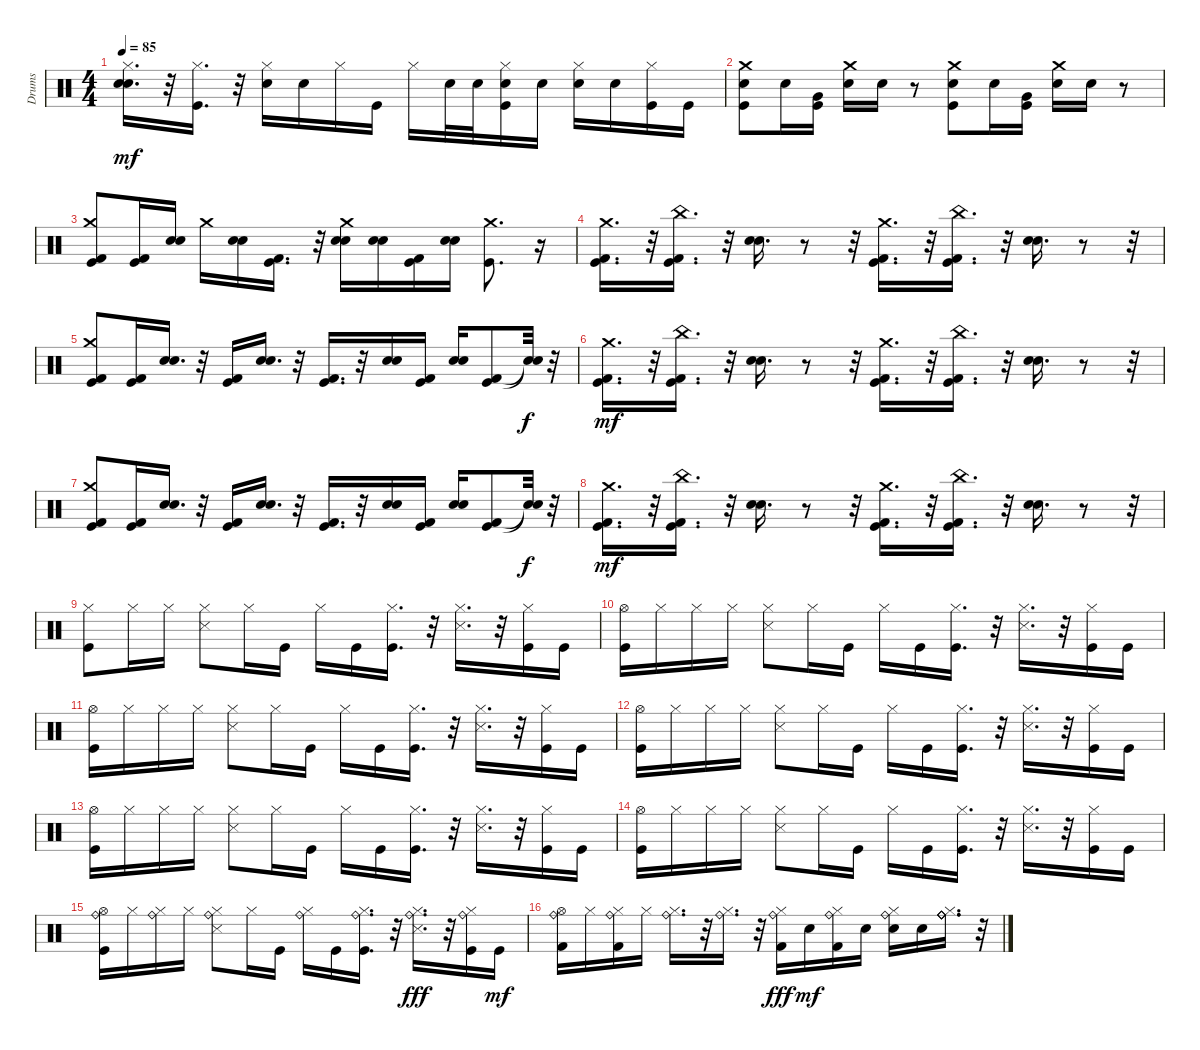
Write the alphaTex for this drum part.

\track ("Drums" "Drums") {instrument percussion}
\staff {score}
\articulation defaults
\ts (4 4)
\tempo 85
\clef neutral
\ks c
("Electric Snare (hit)" "Snare (hit) 2" "Hi-Hat (closed)").16{d dy mf} r.32 ("Kick (hit)" "Hi-Hat (closed)").16{d} r.32 ("Electric Snare (hit)" "Hi-Hat (closed)").16 "Electric Snare (hit)".16 "Hi-Hat (closed)".16 "Kick (hit)".16 "Hi-Hat (closed)".16 "Electric Snare (hit)".32 "Snare (hit) 2".32 ("Electric Snare (hit)" "Kick (hit)" "Hi-Hat (closed)").16 "Snare (hit) 2".16 ("Electric Snare (hit)" "Hi-Hat (closed)").16 "Electric Snare (hit)".16 ("Kick (hit)" "Hi-Hat (closed)").16 "Kick (hit)".16 |
("Kick (hit)" "Electric Snare (hit)" "Crash medium (hit)").8 "Electric Snare (hit)".16 ("Kick (hit)" "Very Low Tom (hit)").16 ("Electric Snare (hit)" "Crash medium (hit)").16 "Snare (hit) 2".16 r.8 ("Electric Snare (hit)" "Kick (hit)" "Crash medium (hit)").8 "Electric Snare (hit)".16 ("Kick (hit)" "Very Low Tom (hit)").16 ("Electric Snare (hit)" "Crash medium (hit)").16 "Snare (hit) 2".16 r.8 |
("Kick (hit) 2" "Kick (hit)" "Crash medium (hit)").8 ("Kick (hit) 2" "Kick (hit)").16 ("Snare (hit) 2" "Electric Snare (hit)").16 "Crash medium (hit)".16 ("Snare (hit) 2" "Electric Snare (hit)").16 ("Kick (hit)" "Kick (hit) 2").16{d} r.32 ("Snare (hit) 2" "Electric Snare (hit)" "Crash medium (hit)").16 ("Snare (hit) 2" "Electric Snare (hit)").16 ("Kick (hit)" "Kick (hit) 2").16 ("Snare (hit) 2" "Electric Snare (hit)").16 ("Kick (hit)" "Crash medium (hit)").8{d} r.16 |
("Kick (hit) 2" "Kick (hit)" "Crash medium (hit)").16{d} r.32 ("Kick (hit) 2" "Kick (hit)" "China (hit)").16{d} r.32 ("Electric Snare (hit)" "Snare (hit) 2").16{d} r.8 r.32 ("Kick (hit) 2" "Kick (hit)" "Crash medium (hit)").16{d} r.32 ("Kick (hit)" "Kick (hit) 2" "China (hit)").16{d} r.32 ("Snare (hit) 2" "Electric Snare (hit)").16{d} r.8 r.32 |
("Kick (hit)" "Kick (hit) 2" "Crash medium (hit)").8 ("Kick (hit) 2" "Kick (hit)").16 ("Snare (hit) 2" "Electric Snare (hit)").16{d} r.32 ("Kick (hit)" "Kick (hit) 2").16 ("Snare (hit) 2" "Electric Snare (hit)").16{d} r.32 ("Kick (hit) 2" "Kick (hit)").16{d} r.32 ("Snare (hit) 2" "Electric Snare (hit)").16 ("Kick (hit)" "Kick (hit) 2").16 ("Snare (hit) 2" "Electric Snare (hit)").16 ("Kick (hit) 2" "Kick (hit)").8 ("Snare (hit)"{t} "Snare (hit)"{t}).32{dy f} r.32 |
("Kick (hit)" "Kick (hit) 2" "Crash medium (hit)").16{d dy mf} r.32 ("Kick (hit) 2" "Kick (hit)" "China (hit)").16{d} r.32 ("Electric Snare (hit)" "Snare (hit) 2").16{d} r.8 r.32 ("Kick (hit) 2" "Kick (hit)" "Crash medium (hit)").16{d} r.32 ("Kick (hit)" "Kick (hit) 2" "China (hit)").16{d} r.32 ("Electric Snare (hit)" "Snare (hit) 2").16{d} r.8 r.32 |
("Kick (hit)" "Kick (hit) 2" "Crash medium (hit)").8 ("Kick (hit) 2" "Kick (hit)").16 ("Snare (hit) 2" "Electric Snare (hit)").16{d} r.32 ("Kick (hit) 2" "Kick (hit)").16 ("Snare (hit) 2" "Electric Snare (hit)").16{d} r.32 ("Kick (hit) 2" "Kick (hit)").16{d} r.32 ("Electric Snare (hit)" "Snare (hit) 2").16 ("Kick (hit)" "Kick (hit) 2").16 ("Electric Snare (hit)" "Snare (hit) 2").16 ("Kick (hit)" "Kick (hit) 2").8 ("Snare (hit)"{t} "Snare (hit)"{t}).32{dy f} r.32 |
("Kick (hit)" "Kick (hit) 2" "Crash medium (hit)").16{d dy mf} r.32 ("Kick (hit)" "Kick (hit) 2" "China (hit)").16{d} r.32 ("Electric Snare (hit)" "Snare (hit) 2").16{d} r.8 r.32 ("Kick (hit)" "Kick (hit) 2" "Crash medium (hit)").16{d} r.32 ("Kick (hit) 2" "Kick (hit)" "China (hit)").16{d} r.32 ("Snare (hit) 2" "Electric Snare (hit)").16{d} r.8 r.32 |
("Kick (hit)" "Hi-Hat (closed)").8 "Hi-Hat (closed)".16 "Hi-Hat (closed)".16 ("Snare (side stick) 3" "Hi-Hat (closed)").8 "Hi-Hat (closed)".16 "Kick (hit)".16 "Hi-Hat (closed)".16 "Kick (hit)".16 ("Kick (hit)" "Hi-Hat (closed)").16{d} r.32 ("Snare (side stick) 3" "Hi-Hat (closed)").16{d} r.32 ("Kick (hit)" "Hi-Hat (closed)").16 "Kick (hit)".16 |
("Kick (hit)" "Hi-Hat (open)").16 "Hi-Hat (closed)".16 "Hi-Hat (closed)".16 "Hi-Hat (closed)".16 ("Snare (side stick) 3" "Hi-Hat (closed)").8 "Hi-Hat (closed)".16 "Kick (hit)".16 "Hi-Hat (closed)".16 "Kick (hit)".16 ("Kick (hit)" "Hi-Hat (closed)").16{d} r.32 ("Snare (side stick) 3" "Hi-Hat (closed)").16{d} r.32 ("Kick (hit)" "Hi-Hat (closed)").16 "Kick (hit)".16 |
("Kick (hit)" "Hi-Hat (open)").16 "Hi-Hat (closed)".16 "Hi-Hat (closed)".16 "Hi-Hat (closed)".16 ("Snare (side stick) 3" "Hi-Hat (closed)").8 "Hi-Hat (closed)".16 "Kick (hit)".16 "Hi-Hat (closed)".16 "Kick (hit)".16 ("Kick (hit)" "Hi-Hat (closed)").16{d} r.32 ("Snare (side stick) 3" "Hi-Hat (closed)").16{d} r.32 ("Kick (hit)" "Hi-Hat (closed)").16 "Kick (hit)".16 |
("Kick (hit)" "Hi-Hat (open)").16 "Hi-Hat (closed)".16 "Hi-Hat (closed)".16 "Hi-Hat (closed)".16 ("Snare (side stick) 3" "Hi-Hat (closed)").8 "Hi-Hat (closed)".16 "Kick (hit)".16 "Hi-Hat (closed)".16 "Kick (hit)".16 ("Kick (hit)" "Hi-Hat (closed)").16{d} r.32 ("Snare (side stick) 3" "Hi-Hat (closed)").16{d} r.32 ("Kick (hit)" "Hi-Hat (closed)").16 "Kick (hit)".16 |
("Kick (hit)" "Hi-Hat (open)").16 "Hi-Hat (closed)".16 "Hi-Hat (closed)".16 "Hi-Hat (closed)".16 ("Snare (side stick) 3" "Hi-Hat (closed)").8 "Hi-Hat (closed)".16 "Kick (hit)".16 "Hi-Hat (closed)".16 "Kick (hit)".16 ("Kick (hit)" "Hi-Hat (closed)").16{d} r.32 ("Snare (side stick) 3" "Hi-Hat (closed)").16{d} r.32 ("Kick (hit)" "Hi-Hat (closed)").16 "Kick (hit)".16 |
("Kick (hit)" "Hi-Hat (open)").16 "Hi-Hat (closed)".16 "Hi-Hat (closed)".16 "Hi-Hat (closed)".16 ("Snare (side stick) 3" "Hi-Hat (closed)").8 "Hi-Hat (closed)".16 "Kick (hit)".16 "Hi-Hat (closed)".16 "Kick (hit)".16 ("Kick (hit)" "Hi-Hat (closed)").16{d} r.32 ("Snare (side stick) 3" "Hi-Hat (closed)").16{d} r.32 ("Kick (hit)" "Hi-Hat (closed)").16 "Kick (hit)".16 |
("Kick (hit)" "Ride (bell)" "Hi-Hat (open)").16 "Hi-Hat (closed)".16 ("Ride (bell)" "Hi-Hat (closed)").16 "Hi-Hat (closed)".16 ("Snare (side stick) 3" "Ride (bell)" "Hi-Hat (closed)").8 "Hi-Hat (closed)".16 "Kick (hit)".16 ("Ride (bell)" "Hi-Hat (closed)").16 "Kick (hit)".16 ("Kick (hit)" "Ride (bell)" "Hi-Hat (closed)").16{d} r.32 ("Snare (side stick) 3" "Hi-Hat (closed)" "Ride (bell)").16{d dy fff} r.32 ("Kick (hit)" "Hi-Hat (closed)" "Ride (bell)").16 "Kick (hit)".16{dy mf} |
("Kick (hit) 2" "Ride (bell)" "Hi-Hat (open)").16 "Hi-Hat (closed)".16 ("Kick (hit) 2" "Ride (bell)" "Hi-Hat (closed)").16 "Hi-Hat (closed)".16 ("Ride (bell)" "Hi-Hat (closed)").16{d} r.32 ("Ride (bell)" "Hi-Hat (closed)").16{d} r.32 ("Kick (hit) 2" "Hi-Hat (closed)" "Ride (bell)").16{dy fff} "Electric Snare (hit)".16{dy mf} ("Kick (hit) 2" "Ride (bell)" "Hi-Hat (closed)").16 "Electric Snare (hit)".16 ("Snare (hit) 2" "Ride (bell)" "Hi-Hat (closed)").16 "Snare (hit) 2".16 ("Ride (bell)" "Ride (bell)" "Ride (bell)" "Hi-Hat (closed)").16{d} r.32
